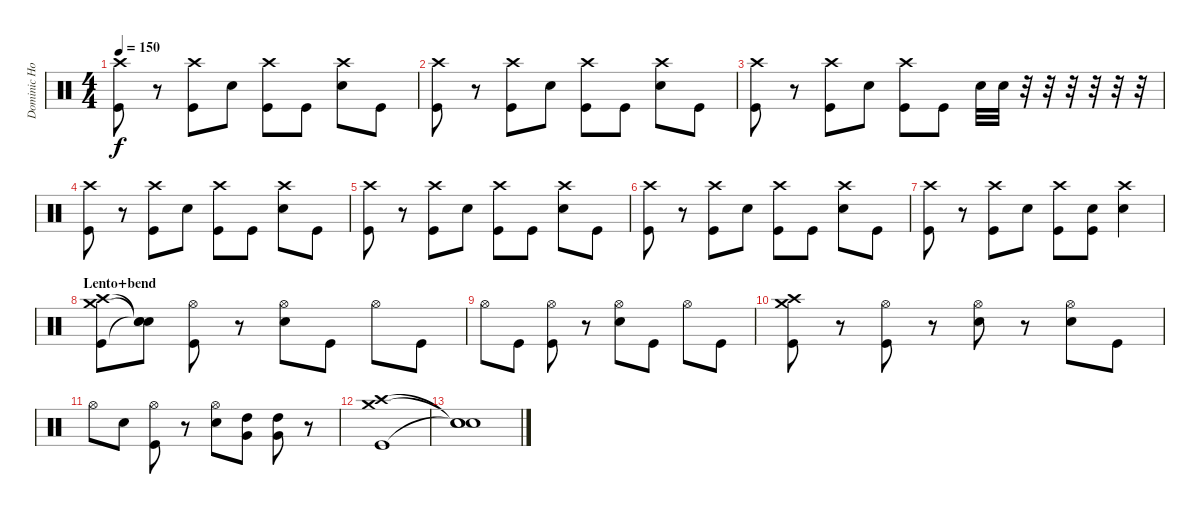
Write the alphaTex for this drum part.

\track ("Dominic Howard" "Dominic Ho") {instrument percussion}
\staff {score}
\articulation defaults
\ts (4 4)
\tempo 150
\clef neutral
\ks c
("Crash high (hit)" "Kick (hit)").8{dy f} r.8 ("Crash high (hit)" "Kick (hit)").8 "Snare (hit) 2".8 ("Crash high (hit)" "Kick (hit)").8 "Kick (hit)".8 ("Crash high (hit)" "Snare (hit) 2").8 "Kick (hit)".8 |
("Crash high (hit)" "Kick (hit)").8 r.8 ("Crash high (hit)" "Kick (hit)").8 "Snare (hit) 2".8 ("Crash high (hit)" "Kick (hit)").8 "Kick (hit)".8 ("Crash high (hit)" "Snare (hit) 2").8 "Kick (hit)".8 |
("Crash high (hit)" "Kick (hit)").8 r.8 ("Crash high (hit)" "Kick (hit)").8 "Snare (hit) 2".8 ("Crash high (hit)" "Kick (hit)").8 "Kick (hit)".8 "Snare (hit) 2".32 "Snare (hit) 2".32 r.32 r.32 r.32 r.32 r.32 r.32 |
("Crash high (hit)" "Kick (hit)").8 r.8 ("Crash high (hit)" "Kick (hit)").8 "Snare (hit) 2".8 ("Crash high (hit)" "Kick (hit)").8 "Kick (hit)".8 ("Crash high (hit)" "Snare (hit) 2").8 "Kick (hit)".8 |
("Crash high (hit)" "Kick (hit)").8 r.8 ("Crash high (hit)" "Kick (hit)").8 "Snare (hit) 2".8 ("Crash high (hit)" "Kick (hit)").8 "Kick (hit)".8 ("Crash high (hit)" "Snare (hit) 2").8 "Kick (hit)".8 |
("Crash high (hit)" "Kick (hit)").8 r.8 ("Crash high (hit)" "Kick (hit)").8 "Snare (hit) 2".8 ("Crash high (hit)" "Kick (hit)").8 "Kick (hit)".8 ("Crash high (hit)" "Snare (hit) 2").8 "Kick (hit)".8 |
("Crash high (hit)" "Kick (hit)").8 r.8 ("Crash high (hit)" "Kick (hit)").8 "Snare (hit) 2".8 ("Crash high (hit)" "Kick (hit)").8 ("Snare (hit) 2" "Kick (hit)").8 ("Crash high (hit)" "Snare (hit) 2").4 |
\section ("" "Lento+bend")
("Crash high (hit)" "Crash medium (hit)" "Kick (hit)").8 ("Snare (hit)"{t} "Snare (hit)"{t} "Snare (hit)"{t}).8 ("Hi-Hat (open)" "Kick (hit)").8 r.8 ("Hi-Hat (open)" "Snare (hit) 2").8 "Kick (hit)".8 "Hi-Hat (open)".8 "Kick (hit)".8 |
"Hi-Hat (open)".8 "Kick (hit)".8 ("Hi-Hat (open)" "Kick (hit)").8 r.8 ("Hi-Hat (open)" "Snare (hit) 2").8 "Kick (hit)".8 "Hi-Hat (open)".8 "Kick (hit)".8 |
("Crash high (hit)" "Crash medium (hit)" "Kick (hit)").8 r.8 ("Hi-Hat (open)" "Kick (hit)").8 r.8 ("Hi-Hat (open)" "Snare (hit) 2").8 r.8 ("Hi-Hat (open)" "Snare (hit) 2").8 "Kick (hit)".8 |
"Hi-Hat (open)".8 "Snare (hit) 2".8 ("Hi-Hat (open)" "Kick (hit)").8 r.8 ("Hi-Hat (open)" "Snare (hit) 2").8 ("High Tom (hit)" "Very Low Tom (hit)").8 ("High Tom (hit)" "Very Low Tom (hit)").8 r.8 |
("Crash high (hit)" "Crash medium (hit)" "Kick (hit)").1 |
("Snare (hit)"{t} "Snare (hit)"{t} "Snare (hit)"{t}).1
